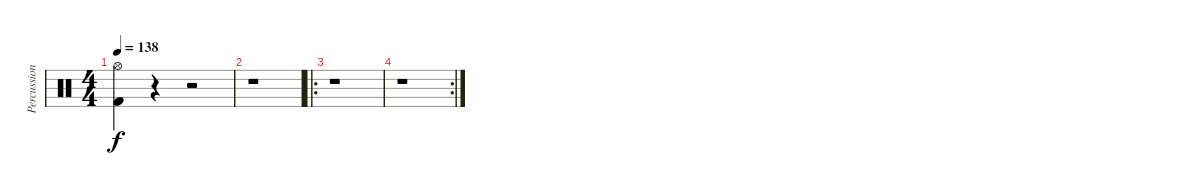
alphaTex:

\track ("Percussion" "Percussion") {instrument percussion}
\staff {score}
\articulation defaults
\ts (4 4)
\tempo 138
\clef neutral
\ks c
("Hi-Hat (open)" "Kick (hit) 2").4{dy f} r.4 r.2 |
r.1 |
\ro
r.1 |
\rc 2
r.1
